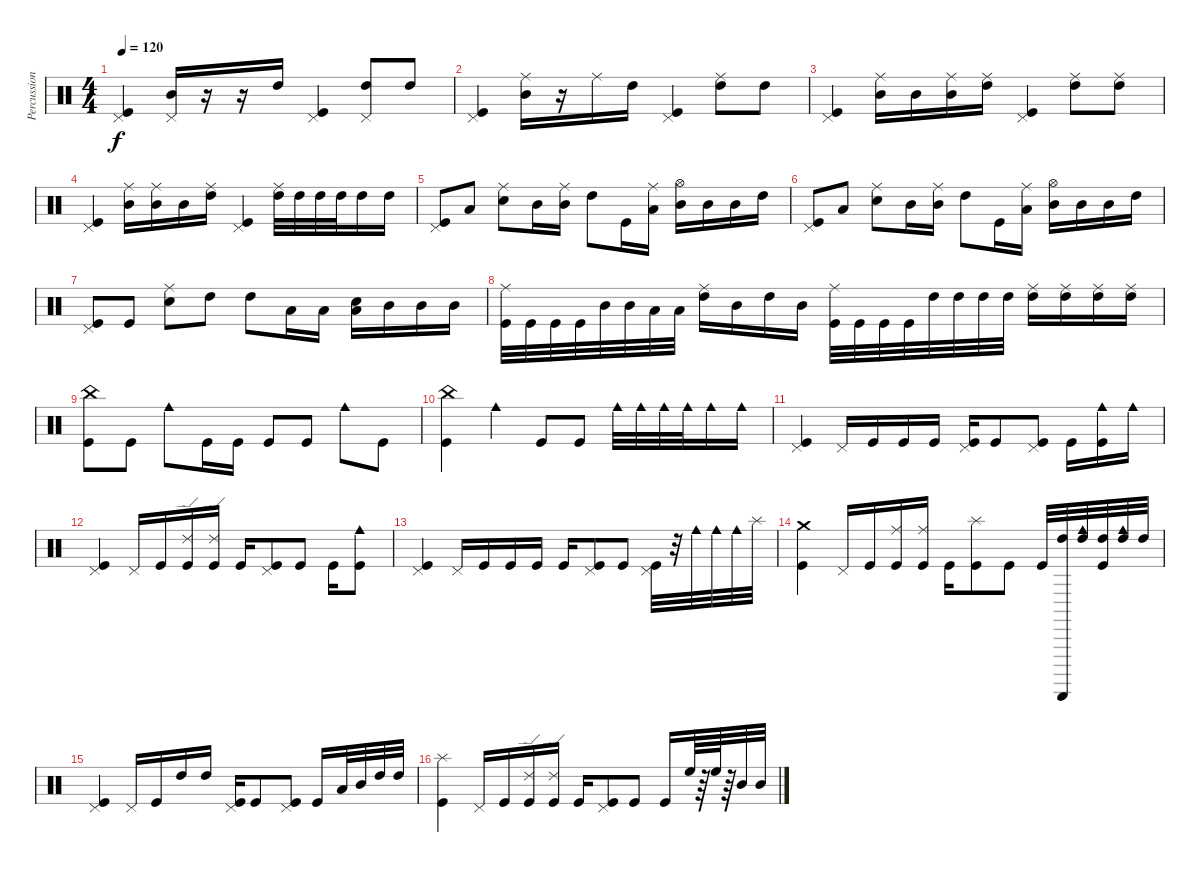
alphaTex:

\track ("Percussions" "Percussion") {instrument percussion}
\staff {score}
\articulation defaults
\ts (4 4)
\tempo 120
\clef neutral
\ks c
("Pedal Hi-Hat (hit)" "Kick (hit)").4{dy f} ("Pedal Hi-Hat (hit)" "Mid Tom (hit)").16 r.16 r.16 "High Tom (hit)".16 ("Pedal Hi-Hat (hit)" "Kick (hit)").4 ("Pedal Hi-Hat (hit)" "High Tom (hit)").8 "High Tom (hit)".8 |
("Pedal Hi-Hat (hit)" "Kick (hit)").4 ("Ride (middle)" "Mid Tom (hit)").16 r.16 "Ride (middle)".16 "High Tom (hit)".16 ("Pedal Hi-Hat (hit)" "Kick (hit)").4 ("Ride (middle)" "High Tom (hit)").8 "High Tom (hit)".8 |
("Pedal Hi-Hat (hit)" "Kick (hit)").4 ("Ride (middle)" "Mid Tom (hit)").16 "Mid Tom (hit)".16 ("Ride (middle)" "Mid Tom (hit)").16 ("Ride (middle)" "High Tom (hit)").16 ("Pedal Hi-Hat (hit)" "Kick (hit)").4 ("Ride (middle)" "High Tom (hit)").8 ("Ride (middle)" "High Tom (hit)").8 |
("Pedal Hi-Hat (hit)" "Kick (hit)").4 ("Ride (middle)" "Mid Tom (hit)").16 ("Ride (middle)" "Mid Tom (hit)").16 "Mid Tom (hit)".16 ("Ride (middle)" "High Tom (hit)").16 ("Pedal Hi-Hat (hit)" "Kick (hit)").4 ("Ride (middle)" "High Tom (hit)").32 "High Tom (hit)".32 "High Tom (hit)".32 "High Tom (hit)".32 "High Tom (hit)".16 "High Tom (hit)".16 |
("Pedal Hi-Hat (hit)" "Kick (hit)").8 "Low Tom (hit)".8 ("Ride (middle)" "Snare (hit) 2").8 "Mid Tom (hit)".16 ("Ride (middle)" "Mid Tom (hit)").16 "High Tom (hit)".8 "Kick (hit)".16 ("Ride (middle)" "Low Tom (hit)").16 ("Hi-Hat (open)" "Mid Tom (hit)").16 "Mid Tom (hit)".16 "Mid Tom (hit)".16 "High Tom (hit)".16 |
("Pedal Hi-Hat (hit)" "Kick (hit)").8 "Low Tom (hit)".8 ("Ride (middle)" "Snare (hit) 2").8 "Mid Tom (hit)".16 ("Ride (middle)" "Mid Tom (hit)").16 "High Tom (hit)".8 "Kick (hit)".16 ("Ride (middle)" "Low Tom (hit)").16 ("Hi-Hat (open)" "Mid Tom (hit)").16 "Mid Tom (hit)".16 "Mid Tom (hit)".16 "High Tom (hit)".16 |
("Pedal Hi-Hat (hit)" "Kick (hit)").8 "Kick (hit)".8 ("Ride (middle)" "Snare (hit) 2").8 "High Tom (hit)".8 "High Tom (hit)".8 "Low Tom (hit)".16 "Low Tom (hit)".16 ("Low Tom (hit)" "Snare (hit) 2").16 "Mid Tom (hit)".16 "Mid Tom (hit)".16 "Mid Tom (hit)".16 |
("Ride (middle)" "Kick (hit)").32 "Kick (hit)".32 "Kick (hit)".32 "Kick (hit)".32 "Mid Tom (hit)".32 "Mid Tom (hit)".32 "Low Tom (hit)".32 "Low Tom (hit)".32 ("Ride (middle)" "High Tom (hit)").16 "Mid Tom (hit)".16 "High Tom (hit)".16 "Mid Tom (hit)".16 ("Ride (middle)" "Kick (hit)").32 "Kick (hit)".32 "Kick (hit)".32 "Kick (hit)".32 "High Tom (hit)".32 "High Tom (hit)".32 "High Tom (hit)".32 "High Tom (hit)".32 ("Ride (middle)" "High Tom (hit)").16 ("Ride (middle)" "High Tom (hit)").16 ("Ride (middle)" "High Tom (hit)").16 ("Ride (middle)" "High Tom (hit)").16 |
("China (hit)" "Kick (hit)").8 "Kick (hit)".8 "Cowbell medium (hit)".8 "Kick (hit)".16 "Kick (hit)".16 "Kick (hit)".8 "Kick (hit)".8 "Cowbell medium (hit)".8 "Kick (hit)".8 |
("China (hit)" "Kick (hit)").4 "Cowbell medium (hit)".4 "Kick (hit)".8 "Kick (hit)".8 "Cowbell medium (hit)".32 "Cowbell medium (hit)".32 "Cowbell medium (hit)".32 "Cowbell medium (hit)".32 "Cowbell medium (hit)".16 "Cowbell medium (hit)".16 |
("Pedal Hi-Hat (hit)" "Kick (hit)").4 "Pedal Hi-Hat (hit)".16 "Kick (hit)".16 "Kick (hit)".16 "Kick (hit)".16 ("Pedal Hi-Hat (hit)" "Kick (hit)").16 "Kick (hit)".8 ("Pedal Hi-Hat (hit)" "Kick (hit)").8 "Kick (hit)".16 ("Cowbell medium (hit)" "Kick (hit)").16 "Cowbell medium (hit)".16 |
("Pedal Hi-Hat (hit)" "Kick (hit)").4 "Pedal Hi-Hat (hit)".16 "Kick (hit)".16 ("Ride (edge) 2" "Kick (hit)").16 ("Ride (edge) 2" "Kick (hit)").16 "Kick (hit)".16 ("Pedal Hi-Hat (hit)" "Kick (hit)").8 "Kick (hit)".8 "Kick (hit)".16 ("Cowbell medium (hit)" "Kick (hit)").8 |
("Pedal Hi-Hat (hit)" "Kick (hit)").4 "Pedal Hi-Hat (hit)".16 "Kick (hit)".16 "Kick (hit)".16 "Kick (hit)".16 "Kick (hit)".16 ("Pedal Hi-Hat (hit)" "Kick (hit)").8 "Kick (hit)".8 ("Pedal Hi-Hat (hit)" "Kick (hit)").32 r.32 "Cowbell medium (hit)".32 "Cowbell medium (hit)".32 "Cowbell medium (hit)".32 "Splash (hit)".32 |
("Crash medium (hit)" "Kick (hit)").4 "Pedal Hi-Hat (hit)".16 "Kick (hit)".16 ("Ride (middle)" "Kick (hit)").16 ("Ride (middle)" "Kick (hit)").16 "Kick (hit)".16 ("Splash (hit)" "Kick (hit)").8 "Kick (hit)".8 "Kick (hit)".32 ("Guiro (scrap-return)" "High Tom (hit)").32 ("Cowbell medium (hit)" "High Tom (hit)").32 ("High Tom (hit)" "Kick (hit)").32 ("Cowbell medium (hit)" "High Tom (hit)").32 "High Tom (hit)".32 |
("Pedal Hi-Hat (hit)" "Kick (hit)").4 "Pedal Hi-Hat (hit)".16 "Kick (hit)".16 "High Tom (hit)".16 "High Tom (hit)".16 ("Pedal Hi-Hat (hit)" "Kick (hit)").16 "Kick (hit)".8 ("Pedal Hi-Hat (hit)" "Kick (hit)").8 "Kick (hit)".16 "Low Tom (hit)".32 "Mid Tom (hit)".32 "High Tom (hit)".32 "High Tom (hit)".32 |
("Splash (hit)" "Kick (hit)").4 "Pedal Hi-Hat (hit)".16 "Kick (hit)".16 ("Ride (edge) 2" "Kick (hit)").16 ("Ride (edge) 2" "Kick (hit)").16 "Kick (hit)".16 ("Pedal Hi-Hat (hit)" "Kick (hit)").8 "Kick (hit)".8 "Kick (hit)".16 "High Floor Tom (hit)".64 r.64 "High Floor Tom (hit)".64 r.64 "Mid Tom (hit)".32 "Mid Tom (hit)".32
